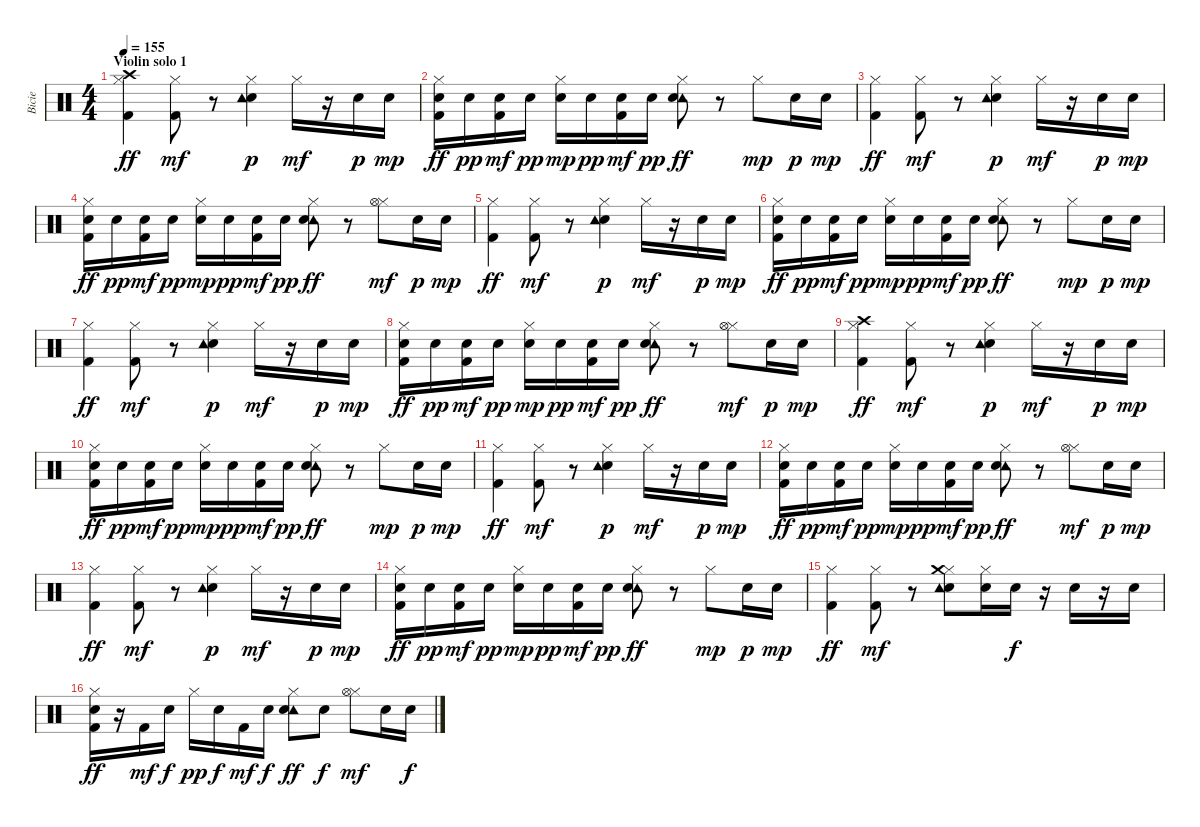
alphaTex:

\track ("Bicie" "Bicie") {instrument percussion}
\staff {score}
\articulation defaults
\ts (4 4)
\section ("" "Violin solo 1")
\tempo 155
\clef neutral
\ks c
("Hi-Hat (closed)" "Crash high (hit)" "Kick (hit) 2").4{dy ff} ("Hi-Hat (closed)" "Kick (hit) 2").8{dy mf} r.8 ("Hi-Hat (closed)" "Electric Snare (hit)" "Tambourine (hit)").4{dy p} "Hi-Hat (closed)".16{dy mf} r.16 "Electric Snare (hit)".16{dy p} "Electric Snare (hit)".16{dy mp} |
("Hi-Hat (closed)" "Electric Snare (hit)" "Kick (hit) 2").16{dy ff} "Electric Snare (hit)".16{dy pp} ("Electric Snare (hit)" "Kick (hit) 2").16{dy mf} "Electric Snare (hit)".16{dy pp} ("Hi-Hat (closed)" "Electric Snare (hit)").16{dy mp} "Electric Snare (hit)".16{dy pp} ("Electric Snare (hit)" "Kick (hit) 2").16{dy mf} "Electric Snare (hit)".16{dy pp} ("Hi-Hat (closed)" "Tambourine (hit)" "Electric Snare (hit)").8{dy ff} r.8 "Hi-Hat (closed)".8{dy mp} "Electric Snare (hit)".16{dy p} "Electric Snare (hit)".16{dy mp} |
("Hi-Hat (closed)" "Kick (hit) 2").4{dy ff} ("Hi-Hat (closed)" "Kick (hit) 2").8{dy mf} r.8 ("Hi-Hat (closed)" "Electric Snare (hit)" "Tambourine (hit)").4{dy p} "Hi-Hat (closed)".16{dy mf} r.16 "Electric Snare (hit)".16{dy p} "Electric Snare (hit)".16{dy mp} |
("Hi-Hat (closed)" "Electric Snare (hit)" "Kick (hit) 2").16{dy ff} "Electric Snare (hit)".16{dy pp} ("Electric Snare (hit)" "Kick (hit) 2").16{dy mf} "Electric Snare (hit)".16{dy pp} ("Hi-Hat (closed)" "Electric Snare (hit)").16{dy mp} "Electric Snare (hit)".16{dy pp} ("Electric Snare (hit)" "Kick (hit) 2").16{dy mf} "Electric Snare (hit)".16{dy pp} ("Hi-Hat (closed)" "Tambourine (hit)" "Electric Snare (hit)").8{dy ff} r.8 ("Hi-Hat (closed)" "Hi-Hat (open)").8{dy mf} "Electric Snare (hit)".16{dy p} "Electric Snare (hit)".16{dy mp} |
("Hi-Hat (closed)" "Kick (hit) 2").4{dy ff} ("Hi-Hat (closed)" "Kick (hit) 2").8{dy mf} r.8 ("Hi-Hat (closed)" "Electric Snare (hit)" "Tambourine (hit)").4{dy p} "Hi-Hat (closed)".16{dy mf} r.16 "Electric Snare (hit)".16{dy p} "Electric Snare (hit)".16{dy mp} |
("Hi-Hat (closed)" "Electric Snare (hit)" "Kick (hit) 2").16{dy ff} "Electric Snare (hit)".16{dy pp} ("Electric Snare (hit)" "Kick (hit) 2").16{dy mf} "Electric Snare (hit)".16{dy pp} ("Hi-Hat (closed)" "Electric Snare (hit)").16{dy mp} "Electric Snare (hit)".16{dy pp} ("Electric Snare (hit)" "Kick (hit) 2").16{dy mf} "Electric Snare (hit)".16{dy pp} ("Hi-Hat (closed)" "Tambourine (hit)" "Electric Snare (hit)").8{dy ff} r.8 "Hi-Hat (closed)".8{dy mp} "Electric Snare (hit)".16{dy p} "Electric Snare (hit)".16{dy mp} |
("Hi-Hat (closed)" "Kick (hit) 2").4{dy ff} ("Hi-Hat (closed)" "Kick (hit) 2").8{dy mf} r.8 ("Hi-Hat (closed)" "Electric Snare (hit)" "Tambourine (hit)").4{dy p} "Hi-Hat (closed)".16{dy mf} r.16 "Electric Snare (hit)".16{dy p} "Electric Snare (hit)".16{dy mp} |
("Hi-Hat (closed)" "Electric Snare (hit)" "Kick (hit) 2").16{dy ff} "Electric Snare (hit)".16{dy pp} ("Electric Snare (hit)" "Kick (hit) 2").16{dy mf} "Electric Snare (hit)".16{dy pp} ("Hi-Hat (closed)" "Electric Snare (hit)").16{dy mp} "Electric Snare (hit)".16{dy pp} ("Electric Snare (hit)" "Kick (hit) 2").16{dy mf} "Electric Snare (hit)".16{dy pp} ("Hi-Hat (closed)" "Tambourine (hit)" "Electric Snare (hit)").8{dy ff} r.8 ("Hi-Hat (closed)" "Hi-Hat (open)").8{dy mf} "Electric Snare (hit)".16{dy p} "Electric Snare (hit)".16{dy mp} |
("Hi-Hat (closed)" "Crash high (hit)" "Kick (hit) 2").4{dy ff} ("Hi-Hat (closed)" "Kick (hit) 2").8{dy mf} r.8 ("Hi-Hat (closed)" "Electric Snare (hit)" "Tambourine (hit)").4{dy p} "Hi-Hat (closed)".16{dy mf} r.16 "Electric Snare (hit)".16{dy p} "Electric Snare (hit)".16{dy mp} |
("Hi-Hat (closed)" "Electric Snare (hit)" "Kick (hit) 2").16{dy ff} "Electric Snare (hit)".16{dy pp} ("Electric Snare (hit)" "Kick (hit) 2").16{dy mf} "Electric Snare (hit)".16{dy pp} ("Hi-Hat (closed)" "Electric Snare (hit)").16{dy mp} "Electric Snare (hit)".16{dy pp} ("Electric Snare (hit)" "Kick (hit) 2").16{dy mf} "Electric Snare (hit)".16{dy pp} ("Hi-Hat (closed)" "Tambourine (hit)" "Electric Snare (hit)").8{dy ff} r.8 "Hi-Hat (closed)".8{dy mp} "Electric Snare (hit)".16{dy p} "Electric Snare (hit)".16{dy mp} |
("Hi-Hat (closed)" "Kick (hit) 2").4{dy ff} ("Hi-Hat (closed)" "Kick (hit) 2").8{dy mf} r.8 ("Hi-Hat (closed)" "Electric Snare (hit)" "Tambourine (hit)").4{dy p} "Hi-Hat (closed)".16{dy mf} r.16 "Electric Snare (hit)".16{dy p} "Electric Snare (hit)".16{dy mp} |
("Hi-Hat (closed)" "Electric Snare (hit)" "Kick (hit) 2").16{dy ff} "Electric Snare (hit)".16{dy pp} ("Electric Snare (hit)" "Kick (hit) 2").16{dy mf} "Electric Snare (hit)".16{dy pp} ("Hi-Hat (closed)" "Electric Snare (hit)").16{dy mp} "Electric Snare (hit)".16{dy pp} ("Electric Snare (hit)" "Kick (hit) 2").16{dy mf} "Electric Snare (hit)".16{dy pp} ("Hi-Hat (closed)" "Tambourine (hit)" "Electric Snare (hit)").8{dy ff} r.8 ("Hi-Hat (closed)" "Hi-Hat (open)").8{dy mf} "Electric Snare (hit)".16{dy p} "Electric Snare (hit)".16{dy mp} |
("Hi-Hat (closed)" "Kick (hit) 2").4{dy ff} ("Hi-Hat (closed)" "Kick (hit) 2").8{dy mf} r.8 ("Hi-Hat (closed)" "Electric Snare (hit)" "Tambourine (hit)").4{dy p} "Hi-Hat (closed)".16{dy mf} r.16 "Electric Snare (hit)".16{dy p} "Electric Snare (hit)".16{dy mp} |
("Hi-Hat (closed)" "Electric Snare (hit)" "Kick (hit) 2").16{dy ff} "Electric Snare (hit)".16{dy pp} ("Electric Snare (hit)" "Kick (hit) 2").16{dy mf} "Electric Snare (hit)".16{dy pp} ("Hi-Hat (closed)" "Electric Snare (hit)").16{dy mp} "Electric Snare (hit)".16{dy pp} ("Electric Snare (hit)" "Kick (hit) 2").16{dy mf} "Electric Snare (hit)".16{dy pp} ("Hi-Hat (closed)" "Tambourine (hit)" "Electric Snare (hit)").8{dy ff} r.8 "Hi-Hat (closed)".8{dy mp} "Electric Snare (hit)".16{dy p} "Electric Snare (hit)".16{dy mp} |
("Hi-Hat (closed)" "Kick (hit) 2").4{dy ff} ("Hi-Hat (closed)" "Kick (hit) 2").8{dy mf} r.8 ("Hi-Hat (closed)" "Electric Snare (hit)" "Tambourine (hit)" "Crash medium (hit)").8 ("Hi-Hat (closed)" "Electric Snare (hit)").16 "Electric Snare (hit)".16{dy f} r.16 "Electric Snare (hit)".16 r.16 "Electric Snare (hit)".16 |
("Hi-Hat (closed)" "Electric Snare (hit)" "Kick (hit) 2").16{dy ff} r.16 "Kick (hit) 2".16{dy mf} "Electric Snare (hit)".16{dy f} "Hi-Hat (closed)".16{dy pp} "Electric Snare (hit)".16{dy f} "Kick (hit) 2".16{dy mf} "Electric Snare (hit)".16{dy f} ("Hi-Hat (closed)" "Tambourine (hit)" "Electric Snare (hit)").8{dy ff} "Electric Snare (hit)".8{dy f} ("Hi-Hat (closed)" "Hi-Hat (open)").8{dy mf} "Electric Snare (hit)".16 "Electric Snare (hit)".16{dy f}
